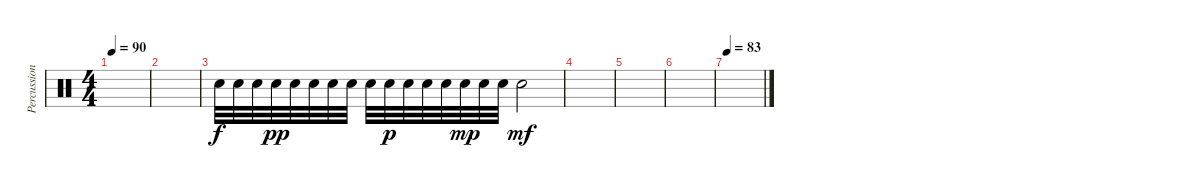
\track ("Percussions" "Percussion") {instrument percussion}
\staff {score}
\articulation defaults
\ts (4 4)
\tempo 90
\clef neutral
\ks c
|
|
"Snare (hit) 2".32 "Snare (hit) 2".32 "Snare (hit) 2".32 "Snare (hit) 2".32{dy pp} "Snare (hit) 2".32 "Snare (hit) 2".32 "Snare (hit) 2".32 "Snare (hit) 2".32 "Snare (hit) 2".32 "Snare (hit) 2".32{dy p} "Snare (hit) 2".32 "Snare (hit) 2".32 "Snare (hit) 2".32 "Snare (hit) 2".32{dy mp} "Snare (hit) 2".32 "Snare (hit) 2".32 "Snare (hit) 2".2{dy mf} |
|
|
|
\tempo 83
